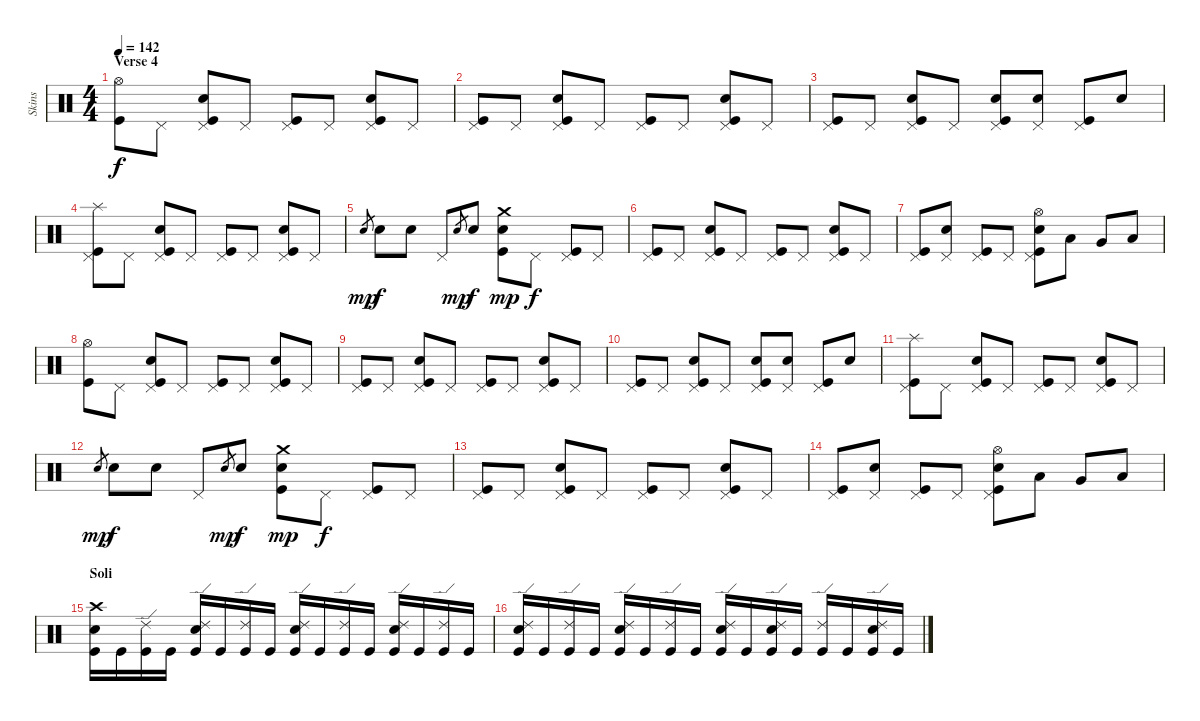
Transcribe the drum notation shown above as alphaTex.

\track ("Skins" "Skins") {instrument percussion}
\staff {score}
\articulation defaults
\ts (4 4)
\section ("" "Verse 4")
\tempo 142
\clef neutral
\ks c
("Hi-Hat (open)" "Kick (hit)").8{dy f} "Pedal Hi-Hat (hit)".8 ("Electric Snare (hit)" "Pedal Hi-Hat (hit)" "Kick (hit)").8 "Pedal Hi-Hat (hit)".8 ("Pedal Hi-Hat (hit)" "Kick (hit)").8 "Pedal Hi-Hat (hit)".8 ("Snare (hit) 2" "Pedal Hi-Hat (hit)" "Kick (hit)").8 "Pedal Hi-Hat (hit)".8 |
("Pedal Hi-Hat (hit)" "Kick (hit)").8 "Pedal Hi-Hat (hit)".8 ("Electric Snare (hit)" "Pedal Hi-Hat (hit)" "Kick (hit)").8 "Pedal Hi-Hat (hit)".8 ("Pedal Hi-Hat (hit)" "Kick (hit)").8 "Pedal Hi-Hat (hit)".8 ("Snare (hit) 2" "Pedal Hi-Hat (hit)" "Kick (hit)").8 "Pedal Hi-Hat (hit)".8 |
("Pedal Hi-Hat (hit)" "Kick (hit)").8 "Pedal Hi-Hat (hit)".8 ("Electric Snare (hit)" "Pedal Hi-Hat (hit)" "Kick (hit)").8 "Pedal Hi-Hat (hit)".8 ("Electric Snare (hit)" "Pedal Hi-Hat (hit)" "Kick (hit)").8 ("Electric Snare (hit)" "Pedal Hi-Hat (hit)").8 ("Pedal Hi-Hat (hit)" "Kick (hit)").8 "Snare (hit) 2".8 |
("Splash (hit)" "Pedal Hi-Hat (hit)" "Kick (hit)").8 "Pedal Hi-Hat (hit)".8 ("Electric Snare (hit)" "Pedal Hi-Hat (hit)" "Kick (hit)").8 "Pedal Hi-Hat (hit)".8 ("Pedal Hi-Hat (hit)" "Kick (hit)").8 "Pedal Hi-Hat (hit)".8 ("Snare (hit) 2" "Pedal Hi-Hat (hit)" "Kick (hit)").8 "Pedal Hi-Hat (hit)".8 |
"Snare (hit) 2".8{gr dy mp} "Snare (hit) 2".8{dy f} "Snare (hit) 2".8 "Pedal Hi-Hat (hit)".8 "Snare (hit) 2".8{gr dy mp} "Snare (hit) 2".8{dy f} ("Crash medium (hit)" "Electric Snare (hit)" "Kick (hit)").8{dy mp} "Pedal Hi-Hat (hit)".8{dy f} ("Pedal Hi-Hat (hit)" "Kick (hit)").8 "Pedal Hi-Hat (hit)".8 |
("Pedal Hi-Hat (hit)" "Kick (hit)").8 "Pedal Hi-Hat (hit)".8 ("Electric Snare (hit)" "Pedal Hi-Hat (hit)" "Kick (hit)").8 "Pedal Hi-Hat (hit)".8 ("Pedal Hi-Hat (hit)" "Kick (hit)").8 "Pedal Hi-Hat (hit)".8 ("Snare (hit) 2" "Pedal Hi-Hat (hit)" "Kick (hit)").8 "Pedal Hi-Hat (hit)".8 |
("Pedal Hi-Hat (hit)" "Kick (hit)").8 ("Snare (hit) 2" "Pedal Hi-Hat (hit)").8 ("Pedal Hi-Hat (hit)" "Kick (hit)").8 "Pedal Hi-Hat (hit)".8 ("Hi-Hat (open)" "Electric Snare (hit)" "Pedal Hi-Hat (hit)" "Kick (hit)").8 "Low Tom (hit)".8 "Very Low Tom (hit)".8 "Low Floor Tom (hit)".8 |
("Hi-Hat (open)" "Kick (hit)").8 "Pedal Hi-Hat (hit)".8 ("Electric Snare (hit)" "Pedal Hi-Hat (hit)" "Kick (hit)").8 "Pedal Hi-Hat (hit)".8 ("Pedal Hi-Hat (hit)" "Kick (hit)").8 "Pedal Hi-Hat (hit)".8 ("Snare (hit) 2" "Pedal Hi-Hat (hit)" "Kick (hit)").8 "Pedal Hi-Hat (hit)".8 |
("Pedal Hi-Hat (hit)" "Kick (hit)").8 "Pedal Hi-Hat (hit)".8 ("Electric Snare (hit)" "Pedal Hi-Hat (hit)" "Kick (hit)").8 "Pedal Hi-Hat (hit)".8 ("Pedal Hi-Hat (hit)" "Kick (hit)").8 "Pedal Hi-Hat (hit)".8 ("Snare (hit) 2" "Pedal Hi-Hat (hit)" "Kick (hit)").8 "Pedal Hi-Hat (hit)".8 |
("Pedal Hi-Hat (hit)" "Kick (hit)").8 "Pedal Hi-Hat (hit)".8 ("Electric Snare (hit)" "Pedal Hi-Hat (hit)" "Kick (hit)").8 "Pedal Hi-Hat (hit)".8 ("Electric Snare (hit)" "Pedal Hi-Hat (hit)" "Kick (hit)").8 ("Electric Snare (hit)" "Pedal Hi-Hat (hit)").8 ("Pedal Hi-Hat (hit)" "Kick (hit)").8 "Snare (hit) 2".8 |
("Splash (hit)" "Pedal Hi-Hat (hit)" "Kick (hit)").8 "Pedal Hi-Hat (hit)".8 ("Electric Snare (hit)" "Pedal Hi-Hat (hit)" "Kick (hit)").8 "Pedal Hi-Hat (hit)".8 ("Pedal Hi-Hat (hit)" "Kick (hit)").8 "Pedal Hi-Hat (hit)".8 ("Snare (hit) 2" "Pedal Hi-Hat (hit)" "Kick (hit)").8 "Pedal Hi-Hat (hit)".8 |
"Snare (hit) 2".8{gr dy mp} "Snare (hit) 2".8{dy f} "Snare (hit) 2".8 "Pedal Hi-Hat (hit)".8 "Snare (hit) 2".8{gr dy mp} "Snare (hit) 2".8{dy f} ("Crash medium (hit)" "Electric Snare (hit)" "Kick (hit)").8{dy mp} "Pedal Hi-Hat (hit)".8{dy f} ("Pedal Hi-Hat (hit)" "Kick (hit)").8 "Pedal Hi-Hat (hit)".8 |
("Pedal Hi-Hat (hit)" "Kick (hit)").8 "Pedal Hi-Hat (hit)".8 ("Electric Snare (hit)" "Pedal Hi-Hat (hit)" "Kick (hit)").8 "Pedal Hi-Hat (hit)".8 ("Pedal Hi-Hat (hit)" "Kick (hit)").8 "Pedal Hi-Hat (hit)".8 ("Snare (hit) 2" "Pedal Hi-Hat (hit)" "Kick (hit)").8 "Pedal Hi-Hat (hit)".8 |
("Pedal Hi-Hat (hit)" "Kick (hit)").8 ("Snare (hit) 2" "Pedal Hi-Hat (hit)").8 ("Pedal Hi-Hat (hit)" "Kick (hit)").8 "Pedal Hi-Hat (hit)".8 ("Hi-Hat (open)" "Electric Snare (hit)" "Pedal Hi-Hat (hit)" "Kick (hit)").8 "Low Tom (hit)".8 "Very Low Tom (hit)".8 "Low Floor Tom (hit)".8 |
\section ("" "Soli")
("Crash high (hit)" "Snare (hit) 2" "Kick (hit)").16 "Kick (hit)".16 ("Ride (edge) 2" "Kick (hit)").16 "Kick (hit)".16 ("Ride (edge) 2" "Electric Snare (hit)" "Kick (hit)").16 "Kick (hit)".16 ("Ride (edge) 2" "Kick (hit)").16 "Kick (hit)".16 ("Ride (edge) 2" "Electric Snare (hit)" "Kick (hit)").16 "Kick (hit)".16 ("Ride (edge) 2" "Kick (hit)").16 "Kick (hit)".16 ("Ride (edge) 2" "Electric Snare (hit)" "Kick (hit)").16 "Kick (hit)".16 ("Ride (edge) 2" "Kick (hit)").16 "Kick (hit)".16 |
("Ride (edge) 2" "Electric Snare (hit)" "Kick (hit)").16 "Kick (hit)".16 ("Ride (edge) 2" "Kick (hit)").16 "Kick (hit)".16 ("Ride (edge) 2" "Electric Snare (hit)" "Kick (hit)").16 "Kick (hit)".16 ("Ride (edge) 2" "Kick (hit)").16 "Kick (hit)".16 ("Ride (edge) 2" "Snare (hit) 2" "Kick (hit)").16 "Kick (hit)".16 ("Ride (edge) 2" "Snare (hit) 2" "Kick (hit)").16 "Kick (hit)".16 ("Ride (edge) 2" "Kick (hit)").16 "Kick (hit)".16 ("Ride (edge) 2" "Snare (hit) 2" "Kick (hit)").16 "Kick (hit)".16
